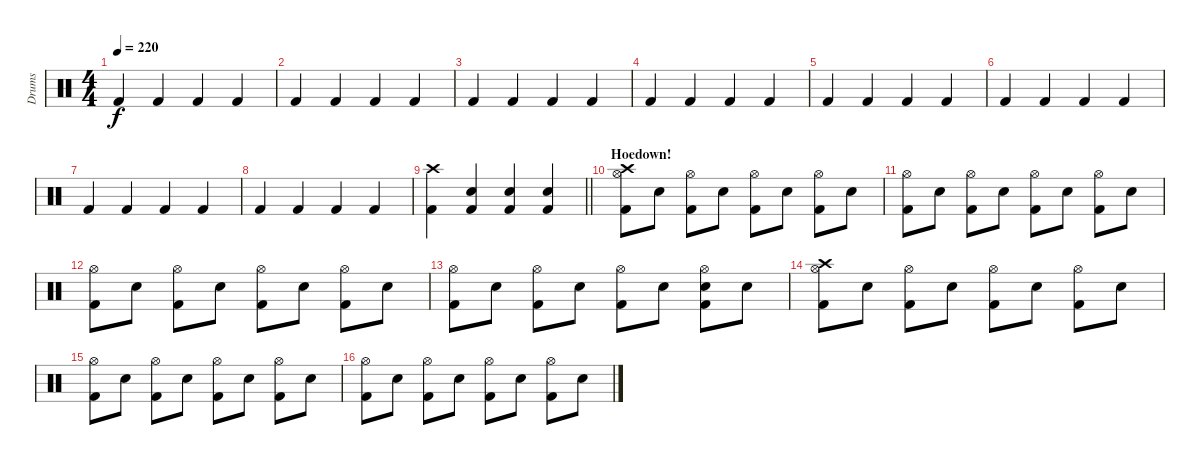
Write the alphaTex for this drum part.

\track ("Drums" "Drums") {instrument percussion}
\staff {score}
\articulation defaults
\ts (4 4)
\tempo 220
\clef neutral
\ks c "Kick (hit) 2".4{dy f} "Kick (hit) 2".4 "Kick (hit) 2".4 "Kick (hit) 2".4
|
"Kick (hit) 2".4 "Kick (hit) 2".4 "Kick (hit) 2".4 "Kick (hit) 2".4 |
"Kick (hit) 2".4 "Kick (hit) 2".4 "Kick (hit) 2".4 "Kick (hit) 2".4 |
"Kick (hit) 2".4 "Kick (hit) 2".4 "Kick (hit) 2".4 "Kick (hit) 2".4 |
"Kick (hit) 2".4 "Kick (hit) 2".4 "Kick (hit) 2".4 "Kick (hit) 2".4 |
"Kick (hit) 2".4 "Kick (hit) 2".4 "Kick (hit) 2".4 "Kick (hit) 2".4 |
"Kick (hit) 2".4 "Kick (hit) 2".4 "Kick (hit) 2".4 "Kick (hit) 2".4 |
"Kick (hit) 2".4 "Kick (hit) 2".4 "Kick (hit) 2".4 "Kick (hit) 2".4 |
\barLineRight lightlight
("Crash high (hit)" "Kick (hit) 2").4 ("Snare (hit) 2" "Kick (hit) 2").4 ("Snare (hit) 2" "Kick (hit) 2").4 ("Snare (hit) 2" "Kick (hit) 2").4 |
\section ("" "Hoedown!")
("Crash high (hit)" "Hi-Hat (open)" "Kick (hit) 2").8 "Snare (hit) 2".8 ("Hi-Hat (open)" "Kick (hit) 2").8 "Snare (hit) 2".8 ("Hi-Hat (open)" "Kick (hit) 2").8 "Snare (hit) 2".8 ("Hi-Hat (open)" "Kick (hit) 2").8 "Snare (hit) 2".8 |
("Hi-Hat (open)" "Kick (hit) 2").8 "Snare (hit) 2".8 ("Hi-Hat (open)" "Kick (hit) 2").8 "Snare (hit) 2".8 ("Hi-Hat (open)" "Kick (hit) 2").8 "Snare (hit) 2".8 ("Hi-Hat (open)" "Kick (hit) 2").8 "Snare (hit) 2".8 |
("Hi-Hat (open)" "Kick (hit) 2").8 "Snare (hit) 2".8 ("Hi-Hat (open)" "Kick (hit) 2").8 "Snare (hit) 2".8 ("Hi-Hat (open)" "Kick (hit) 2").8 "Snare (hit) 2".8 ("Hi-Hat (open)" "Kick (hit) 2").8 "Snare (hit) 2".8 |
("Hi-Hat (open)" "Kick (hit) 2").8 "Snare (hit) 2".8 ("Hi-Hat (open)" "Kick (hit) 2").8 "Snare (hit) 2".8 ("Hi-Hat (open)" "Kick (hit) 2").8 "Snare (hit) 2".8 ("Hi-Hat (open)" "Snare (hit) 2" "Kick (hit) 2").8 "Snare (hit) 2".8 |
("Crash high (hit)" "Hi-Hat (open)" "Kick (hit) 2").8 "Snare (hit) 2".8 ("Hi-Hat (open)" "Kick (hit) 2").8 "Snare (hit) 2".8 ("Hi-Hat (open)" "Kick (hit) 2").8 "Snare (hit) 2".8 ("Hi-Hat (open)" "Kick (hit) 2").8 "Snare (hit) 2".8 |
("Hi-Hat (open)" "Kick (hit) 2").8 "Snare (hit) 2".8 ("Hi-Hat (open)" "Kick (hit) 2").8 "Snare (hit) 2".8 ("Hi-Hat (open)" "Kick (hit) 2").8 "Snare (hit) 2".8 ("Hi-Hat (open)" "Kick (hit) 2").8 "Snare (hit) 2".8 |
("Hi-Hat (open)" "Kick (hit) 2").8 "Snare (hit) 2".8 ("Hi-Hat (open)" "Kick (hit) 2").8 "Snare (hit) 2".8 ("Hi-Hat (open)" "Kick (hit) 2").8 "Snare (hit) 2".8 ("Hi-Hat (open)" "Kick (hit) 2").8 "Snare (hit) 2".8
